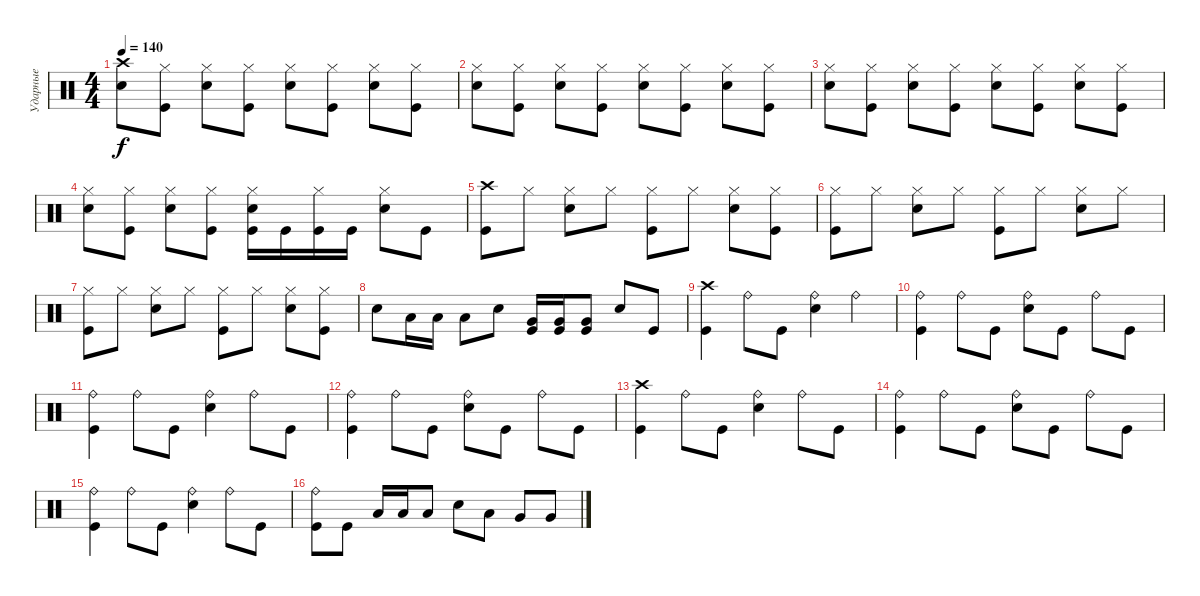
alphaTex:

\track ("Ударные" "Ударные") {instrument percussion}
\staff {score}
\articulation defaults
\ts (4 4)
\tempo 140
\clef neutral
\ks c
("Crash high (hit)" "Electric Snare (hit)").8{dy f} ("Hi-Hat (closed)" "Kick (hit)").8 ("Hi-Hat (closed)" "Electric Snare (hit)").8 ("Hi-Hat (closed)" "Kick (hit)").8 ("Hi-Hat (closed)" "Electric Snare (hit)").8 ("Hi-Hat (closed)" "Kick (hit)").8 ("Hi-Hat (closed)" "Electric Snare (hit)").8 ("Hi-Hat (closed)" "Kick (hit)").8 |
("Hi-Hat (closed)" "Electric Snare (hit)").8 ("Hi-Hat (closed)" "Kick (hit)").8 ("Hi-Hat (closed)" "Electric Snare (hit)").8 ("Hi-Hat (closed)" "Kick (hit)").8 ("Hi-Hat (closed)" "Electric Snare (hit)").8 ("Hi-Hat (closed)" "Kick (hit)").8 ("Hi-Hat (closed)" "Electric Snare (hit)").8 ("Hi-Hat (closed)" "Kick (hit)").8 |
("Hi-Hat (closed)" "Electric Snare (hit)").8 ("Hi-Hat (closed)" "Kick (hit)").8 ("Hi-Hat (closed)" "Electric Snare (hit)").8 ("Hi-Hat (closed)" "Kick (hit)").8 ("Hi-Hat (closed)" "Electric Snare (hit)").8 ("Hi-Hat (closed)" "Kick (hit)").8 ("Hi-Hat (closed)" "Electric Snare (hit)").8 ("Hi-Hat (closed)" "Kick (hit)").8 |
("Hi-Hat (closed)" "Electric Snare (hit)").8 ("Hi-Hat (closed)" "Kick (hit)").8 ("Hi-Hat (closed)" "Electric Snare (hit)").8 ("Hi-Hat (closed)" "Kick (hit)").8 ("Hi-Hat (closed)" "Electric Snare (hit)" "Kick (hit)").16 "Kick (hit)".16 ("Hi-Hat (closed)" "Kick (hit)").16 "Kick (hit)".16 ("Hi-Hat (closed)" "Electric Snare (hit)").8 "Kick (hit)".8 |
("Crash high (hit)" "Kick (hit)").8 "Hi-Hat (closed)".8 ("Hi-Hat (closed)" "Electric Snare (hit)").8 "Hi-Hat (closed)".8 ("Hi-Hat (closed)" "Kick (hit)").8 "Hi-Hat (closed)".8 ("Hi-Hat (closed)" "Electric Snare (hit)").8 ("Hi-Hat (closed)" "Kick (hit)").8 |
("Hi-Hat (closed)" "Kick (hit)").8 "Hi-Hat (closed)".8 ("Hi-Hat (closed)" "Electric Snare (hit)").8 "Hi-Hat (closed)".8 ("Hi-Hat (closed)" "Kick (hit)").8 "Hi-Hat (closed)".8 ("Hi-Hat (closed)" "Electric Snare (hit)").8 "Hi-Hat (closed)".8 |
("Hi-Hat (closed)" "Kick (hit)").8 "Hi-Hat (closed)".8 ("Hi-Hat (closed)" "Electric Snare (hit)").8 "Hi-Hat (closed)".8 ("Hi-Hat (closed)" "Kick (hit)").8 "Hi-Hat (closed)".8 ("Hi-Hat (closed)" "Electric Snare (hit)").8 ("Hi-Hat (closed)" "Kick (hit)").8 |
"Electric Snare (hit)".8 "Low Tom (hit)".16 "Low Tom (hit)".16 "Low Tom (hit)".8 "Electric Snare (hit)".8 ("Very Low Tom (hit)" "Kick (hit)").16 ("Very Low Tom (hit)" "Kick (hit)").16 ("Very Low Tom (hit)" "Kick (hit)").8 "Electric Snare (hit)".8 "Kick (hit)".8 |
("Crash high (hit)" "Kick (hit)").4 "Ride (bell)".8 "Kick (hit)".8 ("Ride (bell)" "Electric Snare (hit)").4 "Ride (bell)".4 |
("Ride (bell)" "Kick (hit)").4 "Ride (bell)".8 "Kick (hit)".8 ("Ride (bell)" "Electric Snare (hit)").8 "Kick (hit)".8 "Ride (bell)".8 "Kick (hit)".8 |
("Ride (bell)" "Kick (hit)").4 "Ride (bell)".8 "Kick (hit)".8 ("Ride (bell)" "Electric Snare (hit)").4 "Ride (bell)".8 "Kick (hit)".8 |
("Ride (bell)" "Kick (hit)").4 "Ride (bell)".8 "Kick (hit)".8 ("Ride (bell)" "Electric Snare (hit)").8 "Kick (hit)".8 "Ride (bell)".8 "Kick (hit)".8 |
("Crash high (hit)" "Kick (hit)").4 "Ride (bell)".8 "Kick (hit)".8 ("Ride (bell)" "Electric Snare (hit)").4 "Ride (bell)".8 "Kick (hit)".8 |
("Ride (bell)" "Kick (hit)").4 "Ride (bell)".8 "Kick (hit)".8 ("Ride (bell)" "Electric Snare (hit)").8 "Kick (hit)".8 "Ride (bell)".8 "Kick (hit)".8 |
("Ride (bell)" "Kick (hit)").4 "Ride (bell)".8 "Kick (hit)".8 ("Ride (bell)" "Electric Snare (hit)").4 "Ride (bell)".8 "Kick (hit)".8 |
("Ride (bell)" "Kick (hit)").8 "Kick (hit)".8 "Low Tom (hit)".16 "Low Tom (hit)".16 "Low Tom (hit)".8 "Electric Snare (hit)".8 "Low Tom (hit)".8 "Very Low Tom (hit)".8 "Very Low Tom (hit)".8
